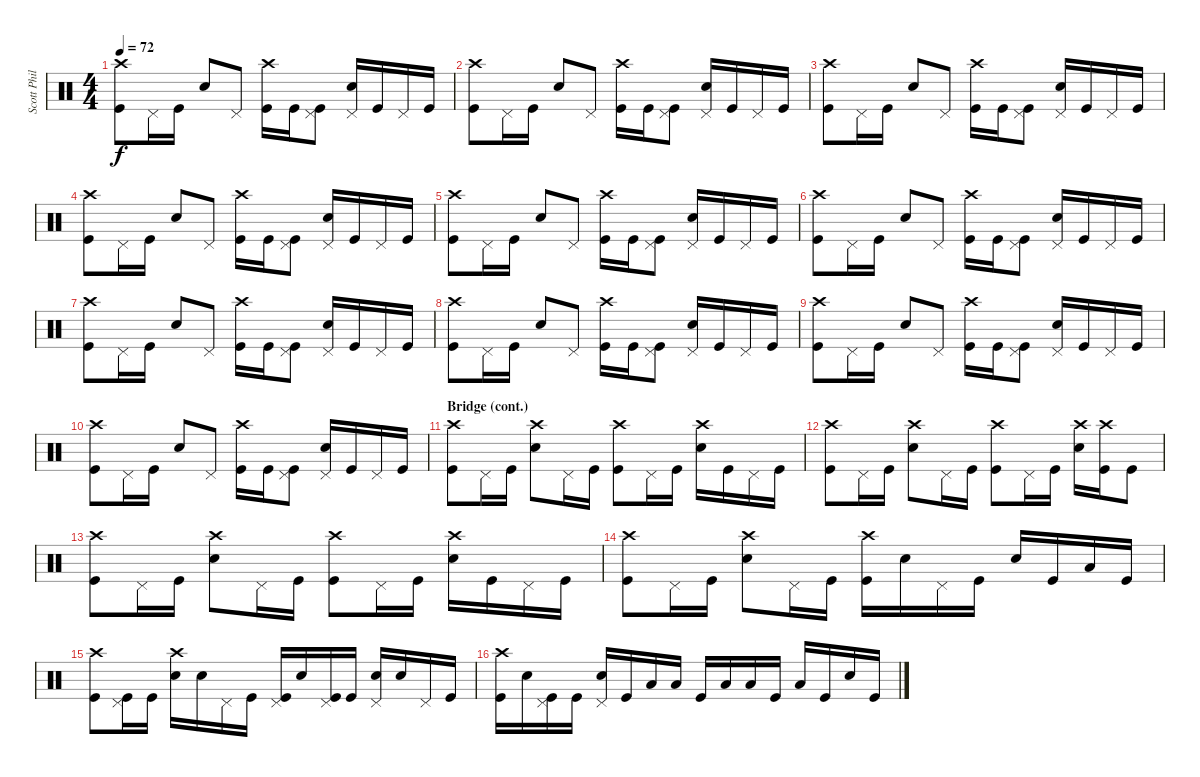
\track ("Scott Phillips" "Scott Phil") {instrument percussion}
\staff {score}
\articulation defaults
\ts (4 4)
\tempo 72
\clef neutral
\ks c
("Crash high (hit)" "Kick (hit)").8{dy f} "Pedal Hi-Hat (hit)".16 "Kick (hit)".16 "Snare (hit) 2".8 "Pedal Hi-Hat (hit)".8 ("Crash high (hit)" "Kick (hit)").16 "Kick (hit)".16 ("Pedal Hi-Hat (hit)" "Kick (hit)").8 ("Pedal Hi-Hat (hit)" "Snare (hit) 2").16 "Kick (hit)".16 "Pedal Hi-Hat (hit)".16 "Kick (hit)".16 |
("Crash high (hit)" "Kick (hit)").8 "Pedal Hi-Hat (hit)".16 "Kick (hit)".16 "Snare (hit) 2".8 "Pedal Hi-Hat (hit)".8 ("Crash high (hit)" "Kick (hit)").16 "Kick (hit)".16 ("Pedal Hi-Hat (hit)" "Kick (hit)").8 ("Pedal Hi-Hat (hit)" "Snare (hit) 2").16 "Kick (hit)".16 "Pedal Hi-Hat (hit)".16 "Kick (hit)".16 |
("Crash high (hit)" "Kick (hit)").8 "Pedal Hi-Hat (hit)".16 "Kick (hit)".16 "Snare (hit) 2".8 "Pedal Hi-Hat (hit)".8 ("Crash high (hit)" "Kick (hit)").16 "Kick (hit)".16 ("Pedal Hi-Hat (hit)" "Kick (hit)").8 ("Pedal Hi-Hat (hit)" "Snare (hit) 2").16 "Kick (hit)".16 "Pedal Hi-Hat (hit)".16 "Kick (hit)".16 |
("Crash high (hit)" "Kick (hit)").8 "Pedal Hi-Hat (hit)".16 "Kick (hit)".16 "Snare (hit) 2".8 "Pedal Hi-Hat (hit)".8 ("Crash high (hit)" "Kick (hit)").16 "Kick (hit)".16 ("Pedal Hi-Hat (hit)" "Kick (hit)").8 ("Pedal Hi-Hat (hit)" "Snare (hit) 2").16 "Kick (hit)".16 "Pedal Hi-Hat (hit)".16 "Kick (hit)".16 |
("Crash high (hit)" "Kick (hit)").8 "Pedal Hi-Hat (hit)".16 "Kick (hit)".16 "Snare (hit) 2".8 "Pedal Hi-Hat (hit)".8 ("Crash high (hit)" "Kick (hit)").16 "Kick (hit)".16 ("Pedal Hi-Hat (hit)" "Kick (hit)").8 ("Pedal Hi-Hat (hit)" "Snare (hit) 2").16 "Kick (hit)".16 "Pedal Hi-Hat (hit)".16 "Kick (hit)".16 |
("Crash high (hit)" "Kick (hit)").8 "Pedal Hi-Hat (hit)".16 "Kick (hit)".16 "Snare (hit) 2".8 "Pedal Hi-Hat (hit)".8 ("Crash high (hit)" "Kick (hit)").16 "Kick (hit)".16 ("Pedal Hi-Hat (hit)" "Kick (hit)").8 ("Pedal Hi-Hat (hit)" "Snare (hit) 2").16 "Kick (hit)".16 "Pedal Hi-Hat (hit)".16 "Kick (hit)".16 |
("Crash high (hit)" "Kick (hit)").8 "Pedal Hi-Hat (hit)".16 "Kick (hit)".16 "Snare (hit) 2".8 "Pedal Hi-Hat (hit)".8 ("Crash high (hit)" "Kick (hit)").16 "Kick (hit)".16 ("Pedal Hi-Hat (hit)" "Kick (hit)").8 ("Pedal Hi-Hat (hit)" "Snare (hit) 2").16 "Kick (hit)".16 "Pedal Hi-Hat (hit)".16 "Kick (hit)".16 |
("Crash high (hit)" "Kick (hit)").8 "Pedal Hi-Hat (hit)".16 "Kick (hit)".16 "Snare (hit) 2".8 "Pedal Hi-Hat (hit)".8 ("Crash high (hit)" "Kick (hit)").16 "Kick (hit)".16 ("Pedal Hi-Hat (hit)" "Kick (hit)").8 ("Pedal Hi-Hat (hit)" "Snare (hit) 2").16 "Kick (hit)".16 "Pedal Hi-Hat (hit)".16 "Kick (hit)".16 |
("Crash high (hit)" "Kick (hit)").8 "Pedal Hi-Hat (hit)".16 "Kick (hit)".16 "Snare (hit) 2".8 "Pedal Hi-Hat (hit)".8 ("Crash high (hit)" "Kick (hit)").16 "Kick (hit)".16 ("Pedal Hi-Hat (hit)" "Kick (hit)").8 ("Pedal Hi-Hat (hit)" "Snare (hit) 2").16 "Kick (hit)".16 "Pedal Hi-Hat (hit)".16 "Kick (hit)".16 |
("Crash high (hit)" "Kick (hit)").8 "Pedal Hi-Hat (hit)".16 "Kick (hit)".16 "Snare (hit) 2".8 "Pedal Hi-Hat (hit)".8 ("Crash high (hit)" "Kick (hit)").16 "Kick (hit)".16 ("Pedal Hi-Hat (hit)" "Kick (hit)").8 ("Pedal Hi-Hat (hit)" "Snare (hit) 2").16 "Kick (hit)".16 "Pedal Hi-Hat (hit)".16 "Kick (hit)".16 |
\section ("" "Bridge (cont.)")
("Crash high (hit)" "Kick (hit)").8 "Pedal Hi-Hat (hit)".16 "Kick (hit)".16 ("Crash high (hit)" "Snare (hit) 2").8 "Pedal Hi-Hat (hit)".16 "Kick (hit)".16 ("Crash high (hit)" "Kick (hit)").8 "Pedal Hi-Hat (hit)".16 "Kick (hit)".16 ("Crash high (hit)" "Snare (hit) 2").16 "Kick (hit)".16 "Pedal Hi-Hat (hit)".16 "Kick (hit)".16 |
("Crash high (hit)" "Kick (hit)").8 "Pedal Hi-Hat (hit)".16 "Kick (hit)".16 ("Crash high (hit)" "Snare (hit) 2").8 "Pedal Hi-Hat (hit)".16 "Kick (hit)".16 ("Crash high (hit)" "Kick (hit)").8 "Pedal Hi-Hat (hit)".16 "Kick (hit)".16 ("Crash high (hit)" "Snare (hit) 2").16 ("Crash high (hit)" "Kick (hit)").16 "Kick (hit)".8 |
("Crash high (hit)" "Kick (hit)").8 "Pedal Hi-Hat (hit)".16 "Kick (hit)".16 ("Crash high (hit)" "Snare (hit) 2").8 "Pedal Hi-Hat (hit)".16 "Kick (hit)".16 ("Crash high (hit)" "Kick (hit)").8 "Pedal Hi-Hat (hit)".16 "Kick (hit)".16 ("Crash high (hit)" "Snare (hit) 2").16 "Kick (hit)".16 "Pedal Hi-Hat (hit)".16 "Kick (hit)".16 |
("Crash high (hit)" "Kick (hit)").8 "Pedal Hi-Hat (hit)".16 "Kick (hit)".16 ("Crash high (hit)" "Snare (hit) 2").8 "Pedal Hi-Hat (hit)".16 "Kick (hit)".16 ("Crash high (hit)" "Kick (hit)").16 "Snare (hit) 2".16 "Pedal Hi-Hat (hit)".16 "Kick (hit)".16 "Snare (hit) 2".16 "Kick (hit)".16 "Low Tom (hit)".16 "Kick (hit)".16 |
("Crash high (hit)" "Kick (hit)").8 ("Pedal Hi-Hat (hit)" "Kick (hit)").16 "Kick (hit)".16 ("Crash high (hit)" "Snare (hit) 2").16 "Snare (hit) 2".16 "Pedal Hi-Hat (hit)".16 "Kick (hit)".16 ("Pedal Hi-Hat (hit)" "Kick (hit)").16 "Snare (hit) 2".16 ("Pedal Hi-Hat (hit)" "Kick (hit)").16 "Kick (hit)".16 ("Pedal Hi-Hat (hit)" "Snare (hit) 2").16 "Snare (hit) 2".16 "Pedal Hi-Hat (hit)".16 "Kick (hit)".16 |
("Crash high (hit)" "Kick (hit)").16 "Snare (hit) 2".16 ("Pedal Hi-Hat (hit)" "Kick (hit)").16 "Kick (hit)".16 ("Pedal Hi-Hat (hit)" "Snare (hit) 2").16 "Kick (hit)".16 "Low Tom (hit)".16 "Low Tom (hit)".16 "Kick (hit)".16 "Low Tom (hit)".16 "Low Tom (hit)".16 "Kick (hit)".16 "Low Tom (hit)".16 "Kick (hit)".16 "Snare (hit) 2".16 "Kick (hit)".16
